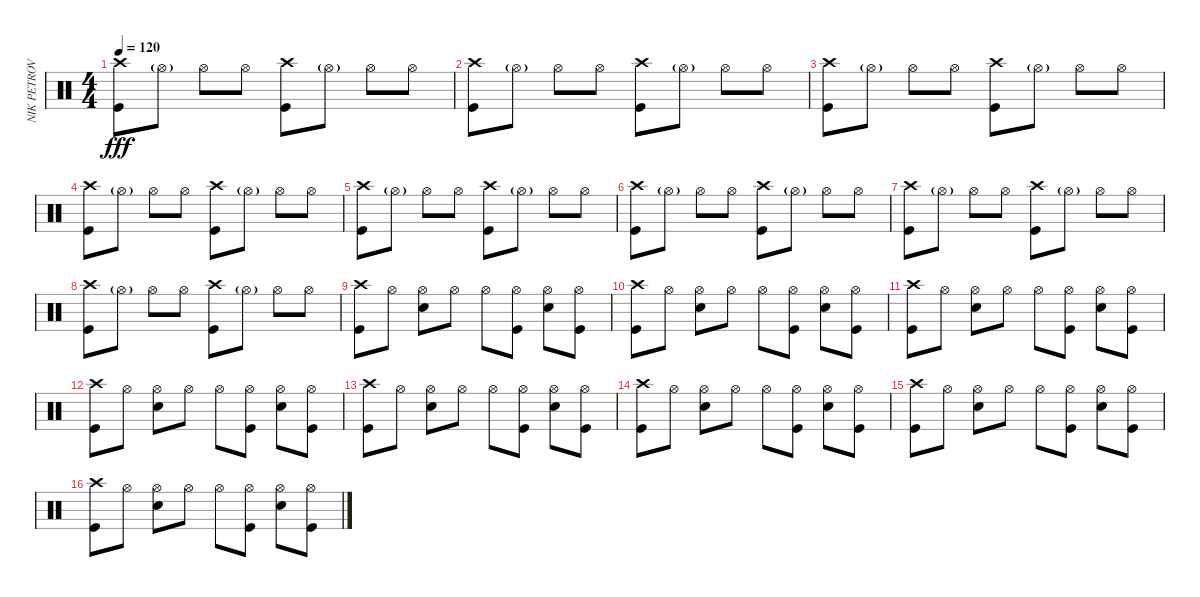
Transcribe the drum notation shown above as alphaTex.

\track ("NIK PETROV" "NIK PETROV") {instrument percussion}
\staff {score}
\articulation defaults
\ts (4 4)
\tempo 120
\clef neutral
\ks c
("Crash high (hit)" "Kick (hit)").8{dy fff} "Hi-Hat (open)"{g}.8 "Hi-Hat (open)".8 "Hi-Hat (open)".8 ("Crash high (hit)" "Kick (hit)").8 "Hi-Hat (open)"{g}.8 "Hi-Hat (open)".8 "Hi-Hat (open)".8 |
("Crash high (hit)" "Kick (hit)").8 "Hi-Hat (open)"{g}.8 "Hi-Hat (open)".8 "Hi-Hat (open)".8 ("Crash high (hit)" "Kick (hit)").8 "Hi-Hat (open)"{g}.8 "Hi-Hat (open)".8 "Hi-Hat (open)".8 |
("Crash high (hit)" "Kick (hit)").8 "Hi-Hat (open)"{g}.8 "Hi-Hat (open)".8 "Hi-Hat (open)".8 ("Crash high (hit)" "Kick (hit)").8 "Hi-Hat (open)"{g}.8 "Hi-Hat (open)".8 "Hi-Hat (open)".8 |
("Crash high (hit)" "Kick (hit)").8 "Hi-Hat (open)"{g}.8 "Hi-Hat (open)".8 "Hi-Hat (open)".8 ("Crash high (hit)" "Kick (hit)").8 "Hi-Hat (open)"{g}.8 "Hi-Hat (open)".8 "Hi-Hat (open)".8 |
("Crash high (hit)" "Kick (hit)").8 "Hi-Hat (open)"{g}.8 "Hi-Hat (open)".8 "Hi-Hat (open)".8 ("Crash high (hit)" "Kick (hit)").8 "Hi-Hat (open)"{g}.8 "Hi-Hat (open)".8 "Hi-Hat (open)".8 |
("Crash high (hit)" "Kick (hit)").8 "Hi-Hat (open)"{g}.8 "Hi-Hat (open)".8 "Hi-Hat (open)".8 ("Crash high (hit)" "Kick (hit)").8 "Hi-Hat (open)"{g}.8 "Hi-Hat (open)".8 "Hi-Hat (open)".8 |
("Crash high (hit)" "Kick (hit)").8 "Hi-Hat (open)"{g}.8 "Hi-Hat (open)".8 "Hi-Hat (open)".8 ("Crash high (hit)" "Kick (hit)").8 "Hi-Hat (open)"{g}.8 "Hi-Hat (open)".8 "Hi-Hat (open)".8 |
("Crash high (hit)" "Kick (hit)").8 "Hi-Hat (open)"{g}.8 "Hi-Hat (open)".8 "Hi-Hat (open)".8 ("Crash high (hit)" "Kick (hit)").8 "Hi-Hat (open)"{g}.8 "Hi-Hat (open)".8 "Hi-Hat (open)".8 |
("Crash high (hit)" "Kick (hit)").8 "Hi-Hat (open)".8 ("Hi-Hat (open)" "Snare (hit) 2").8 "Hi-Hat (open)".8 "Hi-Hat (open)".8 ("Hi-Hat (open)" "Kick (hit)").8 ("Hi-Hat (open)" "Snare (hit) 2").8 ("Hi-Hat (open)" "Kick (hit)").8 |
("Crash high (hit)" "Kick (hit)").8 "Hi-Hat (open)".8 ("Hi-Hat (open)" "Snare (hit) 2").8 "Hi-Hat (open)".8 "Hi-Hat (open)".8 ("Hi-Hat (open)" "Kick (hit)").8 ("Hi-Hat (open)" "Snare (hit) 2").8 ("Hi-Hat (open)" "Kick (hit)").8 |
("Crash high (hit)" "Kick (hit)").8 "Hi-Hat (open)".8 ("Hi-Hat (open)" "Snare (hit) 2").8 "Hi-Hat (open)".8 "Hi-Hat (open)".8 ("Hi-Hat (open)" "Kick (hit)").8 ("Hi-Hat (open)" "Snare (hit) 2").8 ("Hi-Hat (open)" "Kick (hit)").8 |
("Crash high (hit)" "Kick (hit)").8 "Hi-Hat (open)".8 ("Hi-Hat (open)" "Snare (hit) 2").8 "Hi-Hat (open)".8 "Hi-Hat (open)".8 ("Hi-Hat (open)" "Kick (hit)").8 ("Hi-Hat (open)" "Snare (hit) 2").8 ("Hi-Hat (open)" "Kick (hit)").8 |
("Crash high (hit)" "Kick (hit)").8 "Hi-Hat (open)".8 ("Hi-Hat (open)" "Snare (hit) 2").8 "Hi-Hat (open)".8 "Hi-Hat (open)".8 ("Hi-Hat (open)" "Kick (hit)").8 ("Hi-Hat (open)" "Snare (hit) 2").8 ("Hi-Hat (open)" "Kick (hit)").8 |
("Crash high (hit)" "Kick (hit)").8 "Hi-Hat (open)".8 ("Hi-Hat (open)" "Snare (hit) 2").8 "Hi-Hat (open)".8 "Hi-Hat (open)".8 ("Hi-Hat (open)" "Kick (hit)").8 ("Hi-Hat (open)" "Snare (hit) 2").8 ("Hi-Hat (open)" "Kick (hit)").8 |
("Crash high (hit)" "Kick (hit)").8 "Hi-Hat (open)".8 ("Hi-Hat (open)" "Snare (hit) 2").8 "Hi-Hat (open)".8 "Hi-Hat (open)".8 ("Hi-Hat (open)" "Kick (hit)").8 ("Hi-Hat (open)" "Snare (hit) 2").8 ("Hi-Hat (open)" "Kick (hit)").8 |
("Crash high (hit)" "Kick (hit)").8 "Hi-Hat (open)".8 ("Hi-Hat (open)" "Snare (hit) 2").8 "Hi-Hat (open)".8 "Hi-Hat (open)".8 ("Hi-Hat (open)" "Kick (hit)").8 ("Hi-Hat (open)" "Snare (hit) 2").8 ("Hi-Hat (open)" "Kick (hit)").8
